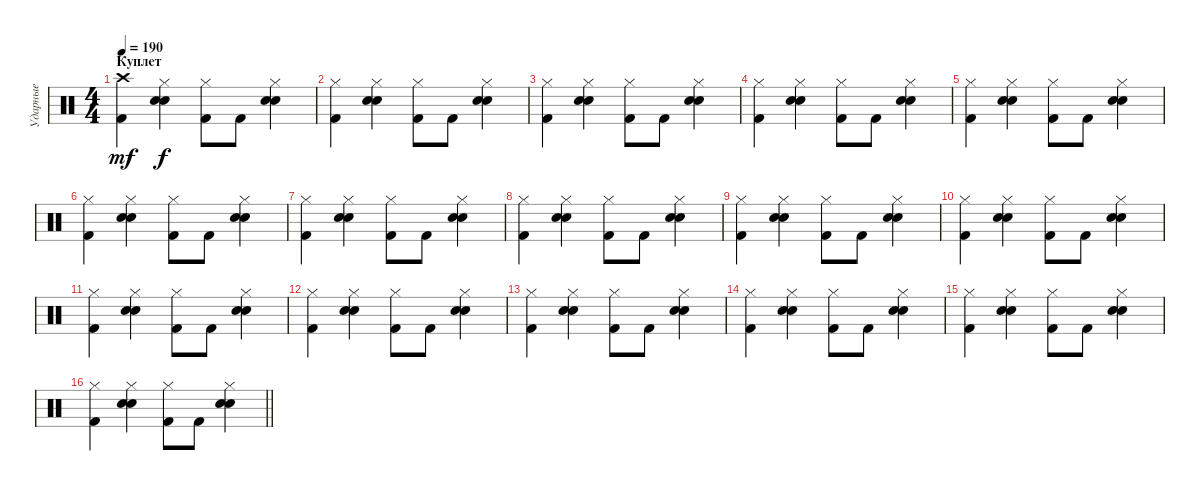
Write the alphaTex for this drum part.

\track ("Ударные" "Ударные") {instrument percussion}
\staff {score}
\articulation defaults
\ts (4 4)
\section ("" "Куплет")
\tempo 190
\clef neutral
\ks c
("Crash high (hit)" "Kick (hit) 2").4{dy mf} ("Hi-Hat (closed)" "Electric Snare (hit)" "Snare (hit) 2").4{dy f} ("Hi-Hat (closed)" "Kick (hit) 2").8 "Kick (hit) 2".8 ("Hi-Hat (closed)" "Electric Snare (hit)" "Snare (hit) 2").4 |
("Hi-Hat (closed)" "Kick (hit) 2").4 ("Hi-Hat (closed)" "Electric Snare (hit)" "Snare (hit) 2").4 ("Hi-Hat (closed)" "Kick (hit) 2").8 "Kick (hit) 2".8 ("Hi-Hat (closed)" "Electric Snare (hit)" "Snare (hit) 2").4 |
("Hi-Hat (closed)" "Kick (hit) 2").4 ("Hi-Hat (closed)" "Electric Snare (hit)" "Snare (hit) 2").4 ("Hi-Hat (closed)" "Kick (hit) 2").8 "Kick (hit) 2".8 ("Hi-Hat (closed)" "Electric Snare (hit)" "Snare (hit) 2").4 |
("Hi-Hat (closed)" "Kick (hit) 2").4 ("Hi-Hat (closed)" "Electric Snare (hit)" "Snare (hit) 2").4 ("Hi-Hat (closed)" "Kick (hit) 2").8 "Kick (hit) 2".8 ("Hi-Hat (closed)" "Electric Snare (hit)" "Snare (hit) 2").4 |
("Hi-Hat (closed)" "Kick (hit) 2").4 ("Hi-Hat (closed)" "Electric Snare (hit)" "Snare (hit) 2").4 ("Hi-Hat (closed)" "Kick (hit) 2").8 "Kick (hit) 2".8 ("Hi-Hat (closed)" "Electric Snare (hit)" "Snare (hit) 2").4 |
("Hi-Hat (closed)" "Kick (hit) 2").4 ("Hi-Hat (closed)" "Electric Snare (hit)" "Snare (hit) 2").4 ("Hi-Hat (closed)" "Kick (hit) 2").8 "Kick (hit) 2".8 ("Hi-Hat (closed)" "Electric Snare (hit)" "Snare (hit) 2").4 |
("Hi-Hat (closed)" "Kick (hit) 2").4 ("Hi-Hat (closed)" "Electric Snare (hit)" "Snare (hit) 2").4 ("Hi-Hat (closed)" "Kick (hit) 2").8 "Kick (hit) 2".8 ("Hi-Hat (closed)" "Electric Snare (hit)" "Snare (hit) 2").4 |
("Hi-Hat (closed)" "Kick (hit) 2").4 ("Hi-Hat (closed)" "Electric Snare (hit)" "Snare (hit) 2").4 ("Hi-Hat (closed)" "Kick (hit) 2").8 "Kick (hit) 2".8 ("Hi-Hat (closed)" "Electric Snare (hit)" "Snare (hit) 2").4 |
("Hi-Hat (closed)" "Kick (hit) 2").4 ("Hi-Hat (closed)" "Electric Snare (hit)" "Snare (hit) 2").4 ("Hi-Hat (closed)" "Kick (hit) 2").8 "Kick (hit) 2".8 ("Hi-Hat (closed)" "Electric Snare (hit)" "Snare (hit) 2").4 |
("Hi-Hat (closed)" "Kick (hit) 2").4 ("Hi-Hat (closed)" "Electric Snare (hit)" "Snare (hit) 2").4 ("Hi-Hat (closed)" "Kick (hit) 2").8 "Kick (hit) 2".8 ("Hi-Hat (closed)" "Electric Snare (hit)" "Snare (hit) 2").4 |
("Hi-Hat (closed)" "Kick (hit) 2").4 ("Hi-Hat (closed)" "Electric Snare (hit)" "Snare (hit) 2").4 ("Hi-Hat (closed)" "Kick (hit) 2").8 "Kick (hit) 2".8 ("Hi-Hat (closed)" "Electric Snare (hit)" "Snare (hit) 2").4 |
("Hi-Hat (closed)" "Kick (hit) 2").4 ("Hi-Hat (closed)" "Electric Snare (hit)" "Snare (hit) 2").4 ("Hi-Hat (closed)" "Kick (hit) 2").8 "Kick (hit) 2".8 ("Hi-Hat (closed)" "Electric Snare (hit)" "Snare (hit) 2").4 |
("Hi-Hat (closed)" "Kick (hit) 2").4 ("Hi-Hat (closed)" "Electric Snare (hit)" "Snare (hit) 2").4 ("Hi-Hat (closed)" "Kick (hit) 2").8 "Kick (hit) 2".8 ("Hi-Hat (closed)" "Electric Snare (hit)" "Snare (hit) 2").4 |
("Hi-Hat (closed)" "Kick (hit) 2").4 ("Hi-Hat (closed)" "Electric Snare (hit)" "Snare (hit) 2").4 ("Hi-Hat (closed)" "Kick (hit) 2").8 "Kick (hit) 2".8 ("Hi-Hat (closed)" "Electric Snare (hit)" "Snare (hit) 2").4 |
("Hi-Hat (closed)" "Kick (hit) 2").4 ("Hi-Hat (closed)" "Electric Snare (hit)" "Snare (hit) 2").4 ("Hi-Hat (closed)" "Kick (hit) 2").8 "Kick (hit) 2".8 ("Hi-Hat (closed)" "Electric Snare (hit)" "Snare (hit) 2").4 |
\barLineRight lightlight
("Hi-Hat (closed)" "Kick (hit) 2").4 ("Hi-Hat (closed)" "Electric Snare (hit)" "Snare (hit) 2").4 ("Hi-Hat (closed)" "Kick (hit) 2").8 "Kick (hit) 2".8 ("Hi-Hat (closed)" "Electric Snare (hit)" "Snare (hit) 2").4
